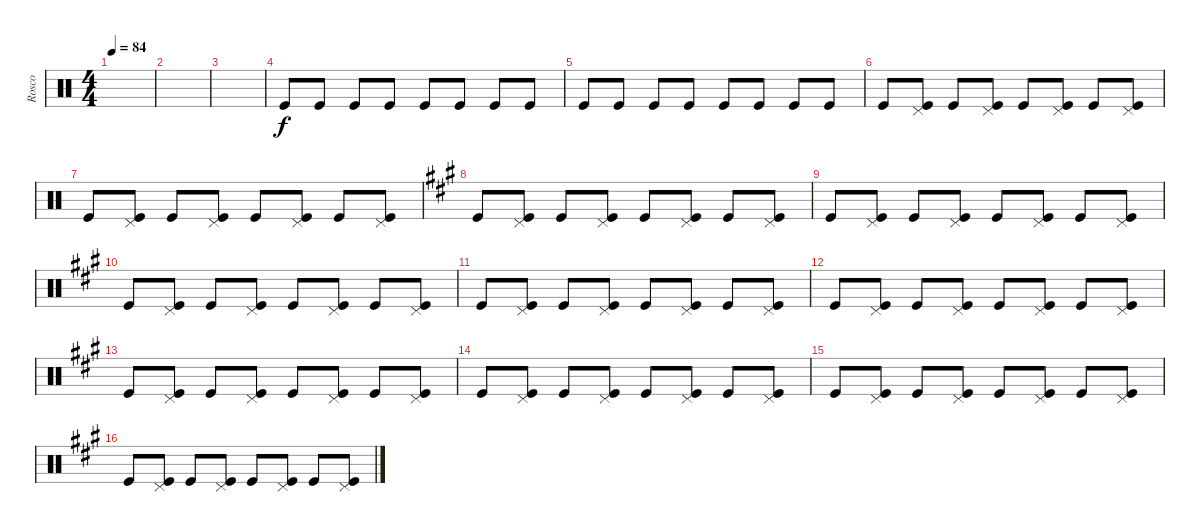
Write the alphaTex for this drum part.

\track ("Rosco" "Rosco") {instrument percussion}
\staff {score}
\articulation defaults
\ts (4 4)
\tempo 84
\clef neutral
\ks c
|
|
|
"Kick (hit)".8 "Kick (hit)".8 "Kick (hit)".8 "Kick (hit)".8 "Kick (hit)".8 "Kick (hit)".8 "Kick (hit)".8 "Kick (hit)".8 |
"Kick (hit)".8 "Kick (hit)".8 "Kick (hit)".8 "Kick (hit)".8 "Kick (hit)".8 "Kick (hit)".8 "Kick (hit)".8 "Kick (hit)".8 |
"Kick (hit)".8 ("Pedal Hi-Hat (hit)" "Kick (hit)").8 "Kick (hit)".8 ("Pedal Hi-Hat (hit)" "Kick (hit)").8 "Kick (hit)".8 ("Pedal Hi-Hat (hit)" "Kick (hit)").8 "Kick (hit)".8 ("Pedal Hi-Hat (hit)" "Kick (hit)").8 |
"Kick (hit)".8 ("Pedal Hi-Hat (hit)" "Kick (hit)").8 "Kick (hit)".8 ("Pedal Hi-Hat (hit)" "Kick (hit)").8 "Kick (hit)".8 ("Pedal Hi-Hat (hit)" "Kick (hit)").8 "Kick (hit)".8 ("Pedal Hi-Hat (hit)" "Kick (hit)").8 |
\ks a "Kick (hit)".8
("Pedal Hi-Hat (hit)" "Kick (hit)").8 "Kick (hit)".8 ("Pedal Hi-Hat (hit)" "Kick (hit)").8 "Kick (hit)".8 ("Pedal Hi-Hat (hit)" "Kick (hit)").8 "Kick (hit)".8 ("Pedal Hi-Hat (hit)" "Kick (hit)").8 |
"Kick (hit)".8 ("Pedal Hi-Hat (hit)" "Kick (hit)").8 "Kick (hit)".8 ("Pedal Hi-Hat (hit)" "Kick (hit)").8 "Kick (hit)".8 ("Pedal Hi-Hat (hit)" "Kick (hit)").8 "Kick (hit)".8 ("Pedal Hi-Hat (hit)" "Kick (hit)").8 |
"Kick (hit)".8 ("Pedal Hi-Hat (hit)" "Kick (hit)").8 "Kick (hit)".8 ("Pedal Hi-Hat (hit)" "Kick (hit)").8 "Kick (hit)".8 ("Pedal Hi-Hat (hit)" "Kick (hit)").8 "Kick (hit)".8 ("Pedal Hi-Hat (hit)" "Kick (hit)").8 |
"Kick (hit)".8 ("Pedal Hi-Hat (hit)" "Kick (hit)").8 "Kick (hit)".8 ("Pedal Hi-Hat (hit)" "Kick (hit)").8 "Kick (hit)".8 ("Pedal Hi-Hat (hit)" "Kick (hit)").8 "Kick (hit)".8 ("Pedal Hi-Hat (hit)" "Kick (hit)").8 |
"Kick (hit)".8 ("Pedal Hi-Hat (hit)" "Kick (hit)").8 "Kick (hit)".8 ("Pedal Hi-Hat (hit)" "Kick (hit)").8 "Kick (hit)".8 ("Pedal Hi-Hat (hit)" "Kick (hit)").8 "Kick (hit)".8 ("Pedal Hi-Hat (hit)" "Kick (hit)").8 |
"Kick (hit)".8 ("Pedal Hi-Hat (hit)" "Kick (hit)").8 "Kick (hit)".8 ("Pedal Hi-Hat (hit)" "Kick (hit)").8 "Kick (hit)".8 ("Pedal Hi-Hat (hit)" "Kick (hit)").8 "Kick (hit)".8 ("Pedal Hi-Hat (hit)" "Kick (hit)").8 |
"Kick (hit)".8 ("Pedal Hi-Hat (hit)" "Kick (hit)").8 "Kick (hit)".8 ("Pedal Hi-Hat (hit)" "Kick (hit)").8 "Kick (hit)".8 ("Pedal Hi-Hat (hit)" "Kick (hit)").8 "Kick (hit)".8 ("Pedal Hi-Hat (hit)" "Kick (hit)").8 |
"Kick (hit)".8 ("Pedal Hi-Hat (hit)" "Kick (hit)").8 "Kick (hit)".8 ("Pedal Hi-Hat (hit)" "Kick (hit)").8 "Kick (hit)".8 ("Pedal Hi-Hat (hit)" "Kick (hit)").8 "Kick (hit)".8 ("Pedal Hi-Hat (hit)" "Kick (hit)").8 |
"Kick (hit)".8 ("Pedal Hi-Hat (hit)" "Kick (hit)").8 "Kick (hit)".8 ("Pedal Hi-Hat (hit)" "Kick (hit)").8 "Kick (hit)".8 ("Pedal Hi-Hat (hit)" "Kick (hit)").8 "Kick (hit)".8 ("Pedal Hi-Hat (hit)" "Kick (hit)").8
